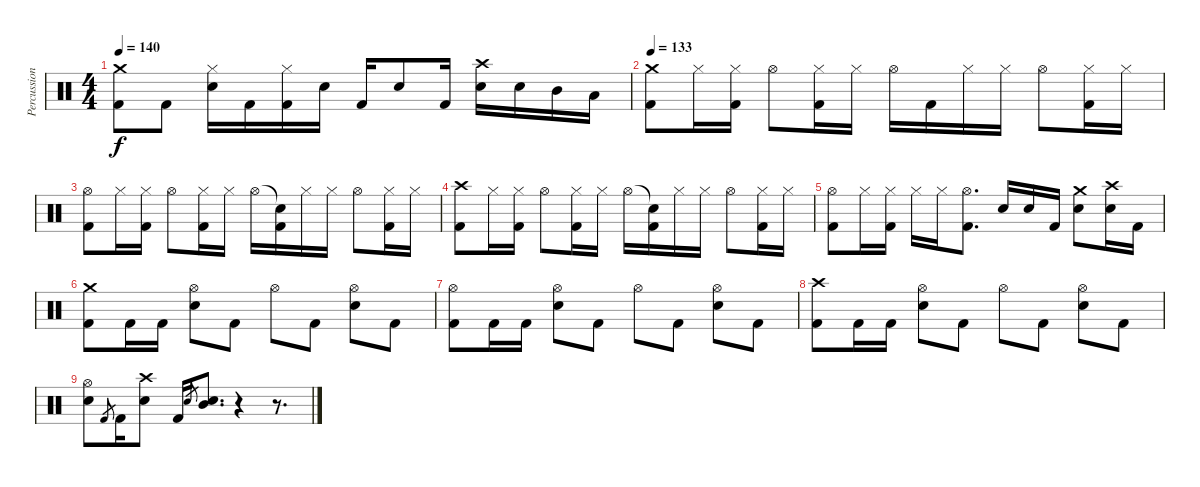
\track ("Percussion" "Percussion") {instrument percussion}
\staff {score}
\articulation defaults
\ts (4 4)
\tempo 140
\clef neutral
\ks c
("Crash medium (hit)" "Kick (hit) 2").8{dy f} "Kick (hit) 2".8 ("Hi-Hat (closed)" "Electric Snare (hit)").16 "Kick (hit) 2".16 ("Hi-Hat (closed)" "Kick (hit) 2").16 "Electric Snare (hit)".16 "Kick (hit) 2".16 "Electric Snare (hit)".8 "Kick (hit) 2".16 ("Crash high (hit)" "Electric Snare (hit)").16 "Electric Snare (hit)".16 "Mid Tom (hit)".16 "Low Floor Tom (hit)".16 |
\tempo 133
("Crash medium (hit)" "Kick (hit) 2").8 "Hi-Hat (closed)".16 ("Hi-Hat (closed)" "Kick (hit) 2").16 "Hi-Hat (open)".8 ("Hi-Hat (closed)" "Kick (hit) 2").16 "Hi-Hat (closed)".16 "Hi-Hat (open)".16 "Kick (hit) 2".16 "Hi-Hat (closed)".16 "Hi-Hat (closed)".16 "Hi-Hat (open)".8 ("Hi-Hat (closed)" "Kick (hit) 2").16 "Hi-Hat (closed)".16 |
("Hi-Hat (open)" "Kick (hit) 2").8 "Hi-Hat (closed)".16 ("Hi-Hat (closed)" "Kick (hit) 2").16 "Hi-Hat (open)".8 ("Hi-Hat (closed)" "Kick (hit) 2").16 "Hi-Hat (closed)".16 "Hi-Hat (open)".16 ("Snare (hit)"{t} "Kick (hit) 2").16 "Hi-Hat (closed)".16 "Hi-Hat (closed)".16 "Hi-Hat (open)".8 ("Hi-Hat (closed)" "Kick (hit) 2").16 "Hi-Hat (closed)".16 |
("Crash high (hit)" "Kick (hit) 2").8 "Hi-Hat (closed)".16 ("Hi-Hat (closed)" "Kick (hit) 2").16 "Hi-Hat (open)".8 ("Hi-Hat (closed)" "Kick (hit) 2").16 "Hi-Hat (closed)".16 "Hi-Hat (open)".16 ("Snare (hit)"{t} "Kick (hit) 2").16 "Hi-Hat (closed)".16 "Hi-Hat (closed)".16 "Hi-Hat (open)".8 ("Hi-Hat (closed)" "Kick (hit) 2").16 "Hi-Hat (closed)".16 |
("Hi-Hat (open)" "Kick (hit) 2").8 "Hi-Hat (closed)".16 ("Hi-Hat (closed)" "Kick (hit) 2").16 "Hi-Hat (closed)".16 "Hi-Hat (closed)".16 ("Hi-Hat (open)" "Kick (hit) 2").8{d} "Electric Snare (hit)".16 "Electric Snare (hit)".16 "Kick (hit) 2".16 ("Crash medium (hit)" "Electric Snare (hit)").8 ("Crash high (hit)" "Electric Snare (hit)").16 "Kick (hit) 2".16 |
("Crash medium (hit)" "Kick (hit) 2").8 "Kick (hit) 2".16 "Kick (hit) 2".16 ("Hi-Hat (open)" "Electric Snare (hit)").8 "Kick (hit) 2".8 "Hi-Hat (open)".8 "Kick (hit) 2".8 ("Hi-Hat (open)" "Electric Snare (hit)").8 "Kick (hit) 2".8 |
("Hi-Hat (open)" "Kick (hit) 2").8 "Kick (hit) 2".16 "Kick (hit) 2".16 ("Hi-Hat (open)" "Electric Snare (hit)").8 "Kick (hit) 2".8 "Hi-Hat (open)".8 "Kick (hit) 2".8 ("Hi-Hat (open)" "Electric Snare (hit)").8 "Kick (hit) 2".8 |
("Crash high (hit)" "Kick (hit) 2").8 "Kick (hit) 2".16 "Kick (hit) 2".16 ("Hi-Hat (open)" "Electric Snare (hit)").8 "Kick (hit) 2".8 "Hi-Hat (open)".8 "Kick (hit) 2".8 ("Hi-Hat (open)" "Electric Snare (hit)").8 "Kick (hit) 2".8 |
("Hi-Hat (open)" "Electric Snare (hit)").8 "Kick (hit) 2".8{gr} "Kick (hit) 2".16 ("Crash high (hit)" "Electric Snare (hit)").8 "Kick (hit) 2".16 "Electric Snare (hit)".8{gr} ("Mid Tom (hit)" "Electric Snare (hit)").8{d} r.4 r.8{d}
